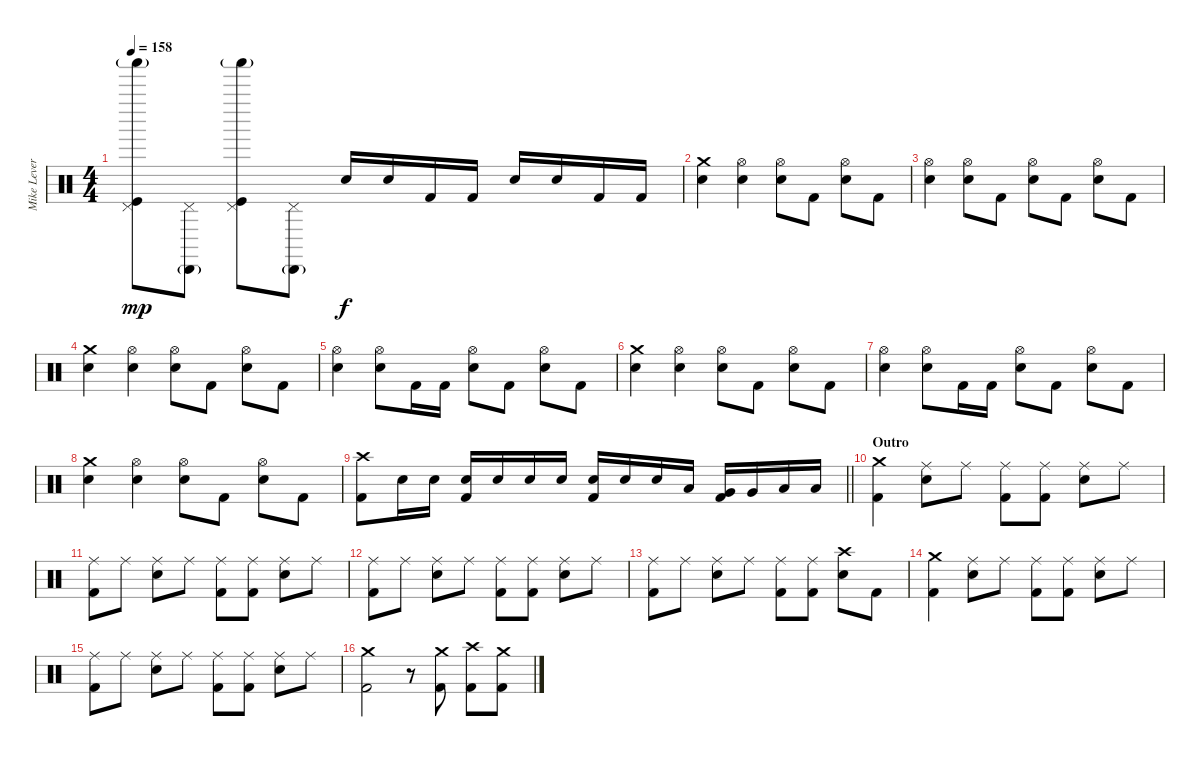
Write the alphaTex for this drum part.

\track ("Mike Leverence - Drums" "Mike Lever") {instrument percussion}
\staff {score}
\articulation defaults
\ts (4 4)
\tempo 158
\clef neutral
\ks c
("Shaker (hit)"{g} "Pedal Hi-Hat (hit)" "Kick (hit)").8{dy mp} ("Cabasa (hit)"{g} "Pedal Hi-Hat (hit)").8 ("Shaker (hit)"{g} "Pedal Hi-Hat (hit)" "Kick (hit)").8 ("Cabasa (hit)"{g} "Pedal Hi-Hat (hit)").8 "Electric Snare (hit)".16{dy f volume 12 balance 8} "Electric Snare (hit)".16 "Kick (hit) 2".16 "Kick (hit) 2".16 "Electric Snare (hit)".16 "Electric Snare (hit)".16 "Kick (hit) 2".16 "Kick (hit) 2".16 |
("Crash medium (hit)" "Electric Snare (hit)").4 ("Hi-Hat (open)" "Electric Snare (hit)").4 ("Hi-Hat (open)" "Electric Snare (hit)").8 "Kick (hit) 2".8 ("Hi-Hat (open)" "Electric Snare (hit)").8 "Kick (hit) 2".8 |
("Hi-Hat (open)" "Electric Snare (hit)").4 ("Hi-Hat (open)" "Electric Snare (hit)").8 "Kick (hit) 2".8 ("Hi-Hat (open)" "Electric Snare (hit)").8 "Kick (hit) 2".8 ("Hi-Hat (open)" "Electric Snare (hit)").8 "Kick (hit) 2".8 |
("Crash medium (hit)" "Electric Snare (hit)").4 ("Hi-Hat (open)" "Electric Snare (hit)").4 ("Hi-Hat (open)" "Electric Snare (hit)").8 "Kick (hit) 2".8 ("Hi-Hat (open)" "Electric Snare (hit)").8 "Kick (hit) 2".8 |
("Hi-Hat (open)" "Electric Snare (hit)").4 ("Hi-Hat (open)" "Electric Snare (hit)").8 "Kick (hit) 2".16 "Kick (hit) 2".16 ("Hi-Hat (open)" "Electric Snare (hit)").8 "Kick (hit) 2".8 ("Hi-Hat (open)" "Electric Snare (hit)").8 "Kick (hit) 2".8 |
("Crash medium (hit)" "Electric Snare (hit)").4 ("Hi-Hat (open)" "Electric Snare (hit)").4 ("Hi-Hat (open)" "Electric Snare (hit)").8 "Kick (hit) 2".8 ("Hi-Hat (open)" "Electric Snare (hit)").8 "Kick (hit) 2".8 |
("Hi-Hat (open)" "Electric Snare (hit)").4 ("Hi-Hat (open)" "Electric Snare (hit)").8 "Kick (hit) 2".16 "Kick (hit) 2".16 ("Hi-Hat (open)" "Electric Snare (hit)").8 "Kick (hit) 2".8 ("Hi-Hat (open)" "Electric Snare (hit)").8 "Kick (hit) 2".8 |
("Crash medium (hit)" "Electric Snare (hit)").4 ("Hi-Hat (open)" "Electric Snare (hit)").4 ("Hi-Hat (open)" "Electric Snare (hit)").8 "Kick (hit) 2".8 ("Hi-Hat (open)" "Electric Snare (hit)").8 "Kick (hit) 2".8 |
\barLineRight lightlight
("Crash high (hit)" "Kick (hit) 2").8 "Electric Snare (hit)".16 "Electric Snare (hit)".16 ("Electric Snare (hit)" "Kick (hit) 2").16 "Electric Snare (hit)".16 "Electric Snare (hit)".16 "Electric Snare (hit)".16 ("Electric Snare (hit)" "Kick (hit) 2").16 "Electric Snare (hit)".16 "Electric Snare (hit)".16 "Low Tom (hit)".16 ("Very Low Tom (hit)" "Kick (hit) 2").16 "Very Low Tom (hit)".16 "Low Floor Tom (hit)".16 "Low Floor Tom (hit)".16 |
\section ("" "Outro")
("Crash medium (hit)" "Kick (hit) 2").4 ("Ride (middle)" "Electric Snare (hit)").8 "Ride (middle)".8 ("Ride (middle)" "Kick (hit) 2").8 ("Ride (middle)" "Kick (hit) 2").8 ("Ride (middle)" "Electric Snare (hit)").8 "Ride (middle)".8 |
("Ride (middle)" "Kick (hit) 2").8 "Ride (middle)".8 ("Ride (middle)" "Electric Snare (hit)").8 "Ride (middle)".8 ("Ride (middle)" "Kick (hit) 2").8 ("Ride (middle)" "Kick (hit) 2").8 ("Ride (middle)" "Electric Snare (hit)").8 "Ride (middle)".8 |
("Ride (middle)" "Kick (hit) 2").8 "Ride (middle)".8 ("Ride (middle)" "Electric Snare (hit)").8 "Ride (middle)".8 ("Ride (middle)" "Kick (hit) 2").8 ("Ride (middle)" "Kick (hit) 2").8 ("Ride (middle)" "Electric Snare (hit)").8 "Ride (middle)".8 |
("Ride (middle)" "Kick (hit) 2").8 "Ride (middle)".8 ("Ride (middle)" "Electric Snare (hit)").8 "Ride (middle)".8 ("Ride (middle)" "Kick (hit) 2").8 ("Ride (middle)" "Kick (hit) 2").8 ("Crash high (hit)" "Electric Snare (hit)").8 "Kick (hit) 2".8 |
("Crash medium (hit)" "Kick (hit) 2").4 ("Ride (middle)" "Electric Snare (hit)").8 "Ride (middle)".8 ("Ride (middle)" "Kick (hit) 2").8 ("Ride (middle)" "Kick (hit) 2").8 ("Ride (middle)" "Electric Snare (hit)").8 "Ride (middle)".8 |
("Ride (middle)" "Kick (hit) 2").8 "Ride (middle)".8 ("Ride (middle)" "Electric Snare (hit)").8 "Ride (middle)".8 ("Ride (middle)" "Kick (hit) 2").8 ("Ride (middle)" "Kick (hit) 2").8 ("Ride (middle)" "Electric Snare (hit)").8 "Ride (middle)".8 |
("Crash medium (hit)" "Kick (hit) 2").2 r.8 ("Crash medium (hit)" "Kick (hit) 2").8 ("Crash high (hit)" "Kick (hit) 2").8 ("Crash medium (hit)" "Kick (hit) 2").8
